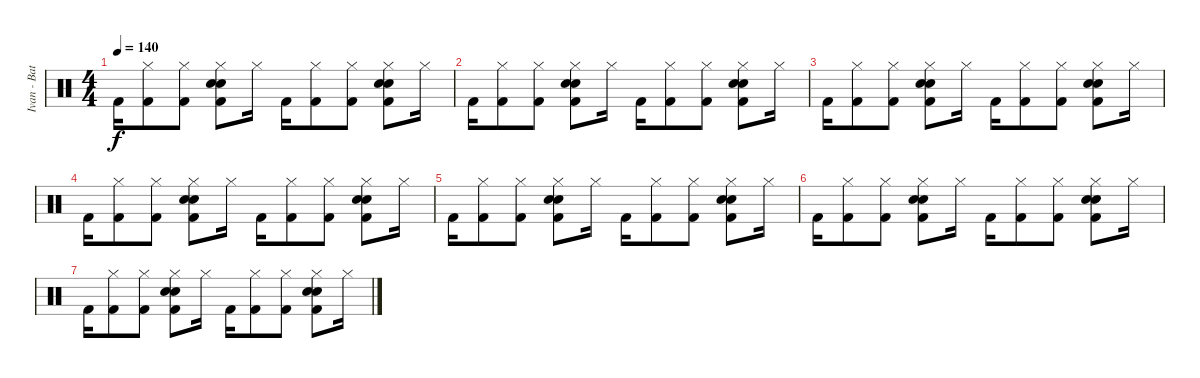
\track ("Ivan - Batterie" "Ivan - Bat") {instrument percussion}
\staff {score}
\articulation defaults
\ts (4 4)
\tempo 140
\clef neutral
\ks c "Kick (hit) 2".16{dy f}
("Hi-Hat (closed)" "Kick (hit) 2").8 ("Hi-Hat (closed)" "Kick (hit) 2").8 ("Hi-Hat (closed)" "Electric Snare (hit)" "Snare (hit) 2" "Kick (hit) 2").8 "Hi-Hat (closed)".16 "Kick (hit) 2".16 ("Hi-Hat (closed)" "Kick (hit) 2").8 ("Hi-Hat (closed)" "Kick (hit) 2").8 ("Hi-Hat (closed)" "Electric Snare (hit)" "Snare (hit) 2" "Kick (hit) 2").8 "Hi-Hat (closed)".16 |
"Kick (hit) 2".16{volume 9} ("Hi-Hat (closed)" "Kick (hit) 2").8 ("Hi-Hat (closed)" "Kick (hit) 2").8 ("Hi-Hat (closed)" "Electric Snare (hit)" "Snare (hit) 2" "Kick (hit) 2").8 "Hi-Hat (closed)".16 "Kick (hit) 2".16 ("Hi-Hat (closed)" "Kick (hit) 2").8 ("Hi-Hat (closed)" "Kick (hit) 2").8 ("Hi-Hat (closed)" "Electric Snare (hit)" "Snare (hit) 2" "Kick (hit) 2").8 "Hi-Hat (closed)".16 |
"Kick (hit) 2".16 ("Hi-Hat (closed)" "Kick (hit) 2").8 ("Hi-Hat (closed)" "Kick (hit) 2").8 ("Hi-Hat (closed)" "Electric Snare (hit)" "Snare (hit) 2" "Kick (hit) 2").8 "Hi-Hat (closed)".16 "Kick (hit) 2".16 ("Hi-Hat (closed)" "Kick (hit) 2").8 ("Hi-Hat (closed)" "Kick (hit) 2").8 ("Hi-Hat (closed)" "Electric Snare (hit)" "Snare (hit) 2" "Kick (hit) 2").8 "Hi-Hat (closed)".16 |
"Kick (hit) 2".16{volume 6} ("Hi-Hat (closed)" "Kick (hit) 2").8 ("Hi-Hat (closed)" "Kick (hit) 2").8 ("Hi-Hat (closed)" "Electric Snare (hit)" "Snare (hit) 2" "Kick (hit) 2").8 "Hi-Hat (closed)".16 "Kick (hit) 2".16 ("Hi-Hat (closed)" "Kick (hit) 2").8 ("Hi-Hat (closed)" "Kick (hit) 2").8 ("Hi-Hat (closed)" "Electric Snare (hit)" "Snare (hit) 2" "Kick (hit) 2").8 "Hi-Hat (closed)".16 |
"Kick (hit) 2".16 ("Hi-Hat (closed)" "Kick (hit) 2").8 ("Hi-Hat (closed)" "Kick (hit) 2").8 ("Hi-Hat (closed)" "Electric Snare (hit)" "Snare (hit) 2" "Kick (hit) 2").8 "Hi-Hat (closed)".16 "Kick (hit) 2".16 ("Hi-Hat (closed)" "Kick (hit) 2").8 ("Hi-Hat (closed)" "Kick (hit) 2").8 ("Hi-Hat (closed)" "Electric Snare (hit)" "Snare (hit) 2" "Kick (hit) 2").8 "Hi-Hat (closed)".16 |
"Kick (hit) 2".16{volume 0} ("Hi-Hat (closed)" "Kick (hit) 2").8 ("Hi-Hat (closed)" "Kick (hit) 2").8 ("Hi-Hat (closed)" "Electric Snare (hit)" "Snare (hit) 2" "Kick (hit) 2").8 "Hi-Hat (closed)".16 "Kick (hit) 2".16 ("Hi-Hat (closed)" "Kick (hit) 2").8 ("Hi-Hat (closed)" "Kick (hit) 2").8 ("Hi-Hat (closed)" "Electric Snare (hit)" "Snare (hit) 2" "Kick (hit) 2").8 "Hi-Hat (closed)".16 |
"Kick (hit) 2".16 ("Hi-Hat (closed)" "Kick (hit) 2").8 ("Hi-Hat (closed)" "Kick (hit) 2").8 ("Hi-Hat (closed)" "Electric Snare (hit)" "Snare (hit) 2" "Kick (hit) 2").8 "Hi-Hat (closed)".16 "Kick (hit) 2".16 ("Hi-Hat (closed)" "Kick (hit) 2").8 ("Hi-Hat (closed)" "Kick (hit) 2").8 ("Hi-Hat (closed)" "Electric Snare (hit)" "Snare (hit) 2" "Kick (hit) 2").8 "Hi-Hat (closed)".16
